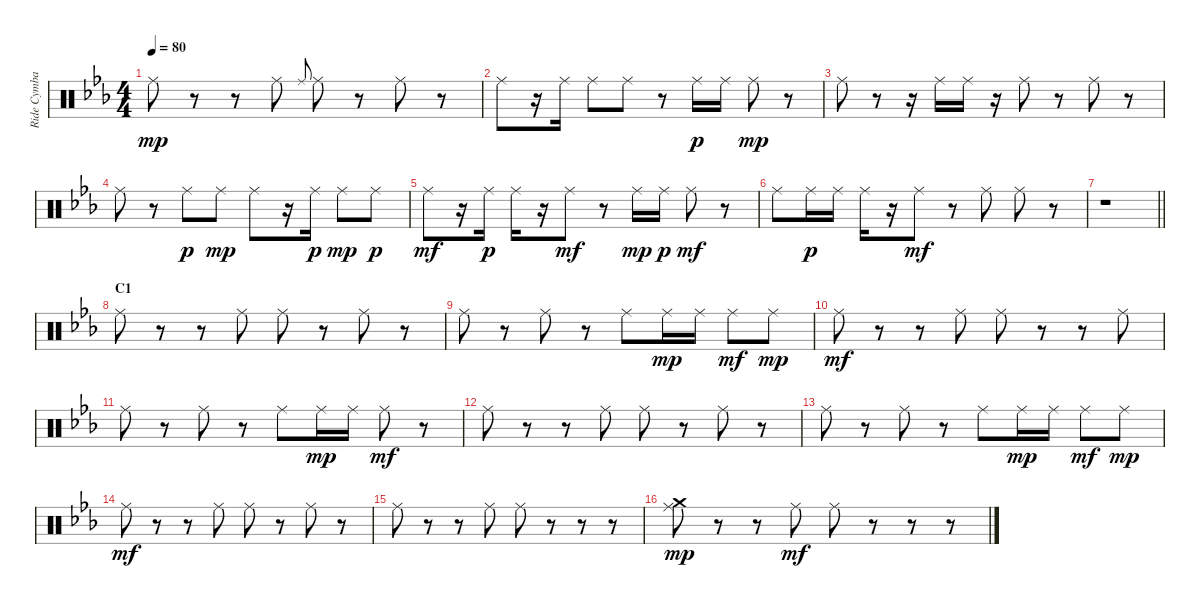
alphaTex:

\track ("Ride Cymbal" "Ride Cymba") {instrument percussion}
\staff {score}
\articulation defaults
\ts (4 4)
\tempo 80
\clef neutral
\ks eb "Ride (middle)".8{dy mp}
r.8 r.8 "Ride (middle)".8 "Ride (middle)".8{gr onbeat} "Ride (middle)".8 r.8 "Ride (middle)".8 r.8 |
"Ride (middle)".8 r.16 "Ride (middle)".16 "Ride (middle)".8 "Ride (middle)".8 r.8 "Ride (middle)".16{dy p} "Ride (middle)".16 "Ride (middle)".8{dy mp} r.8 |
"Ride (middle)".8 r.8 r.16 "Ride (middle)".16 "Ride (middle)".16 r.16 "Ride (middle)".8 r.8 "Ride (middle)".8 r.8 |
"Ride (middle)".8 r.8 "Ride (middle)".8{dy p} "Ride (middle)".8{dy mp} "Ride (middle)".8 r.16 "Ride (middle)".16{dy p} "Ride (middle)".8{dy mp} "Ride (middle)".8{dy p} |
"Ride (middle)".8{dy mf} r.16 "Ride (middle)".16{dy p} "Ride (middle)".16 r.16 "Ride (middle)".8{dy mf} r.8 "Ride (middle)".16{dy mp} "Ride (middle)".16{dy p} "Ride (middle)".8{dy mf} r.8 |
"Ride (middle)".8 "Ride (middle)".16{dy p} "Ride (middle)".16 "Ride (middle)".16 r.16 "Ride (middle)".8{dy mf} r.8 "Ride (middle)".8 "Ride (middle)".8 r.8 |
\barLineRight lightlight
r.1 |
\section ("" "C1")
"Ride (middle)".8 r.8 r.8 "Ride (middle)".8 "Ride (middle)".8 r.8 "Ride (middle)".8 r.8 |
"Ride (middle)".8 r.8 "Ride (middle)".8 r.8 "Ride (middle)".8 "Ride (middle)".16{dy mp} "Ride (middle)".16 "Ride (middle)".8{dy mf} "Ride (middle)".8{dy mp} |
"Ride (middle)".8{dy mf} r.8 r.8 "Ride (middle)".8 "Ride (middle)".8 r.8 r.8 "Ride (middle)".8 |
"Ride (middle)".8 r.8 "Ride (middle)".8 r.8 "Ride (middle)".8 "Ride (middle)".16{dy mp} "Ride (middle)".16 "Ride (middle)".8{dy mf} r.8 |
"Ride (middle)".8 r.8 r.8 "Ride (middle)".8 "Ride (middle)".8 r.8 "Ride (middle)".8 r.8 |
"Ride (middle)".8 r.8 "Ride (middle)".8 r.8 "Ride (middle)".8 "Ride (middle)".16{dy mp} "Ride (middle)".16 "Ride (middle)".8{dy mf} "Ride (middle)".8{dy mp} |
"Ride (middle)".8{dy mf} r.8 r.8 "Ride (middle)".8 "Ride (middle)".8 r.8 "Ride (middle)".8 r.8 |
"Ride (middle)".8 r.8 r.8 "Ride (middle)".8 "Ride (middle)".8 r.8 r.8 r.8 |
("Ride (middle)" "Crash medium (hit)").8{dy mp} r.8 r.8 "Ride (middle)".8{dy mf} "Ride (middle)".8 r.8 r.8 r.8
